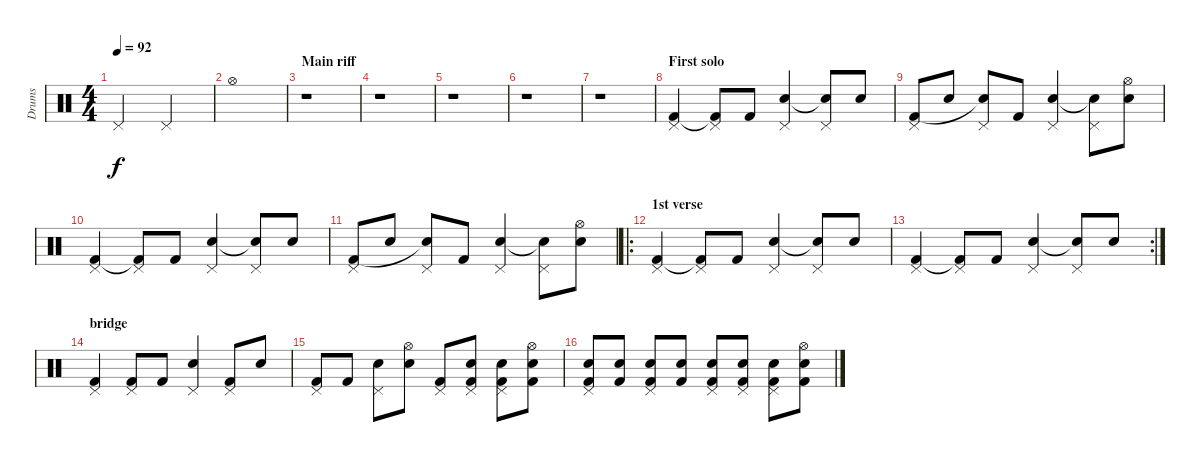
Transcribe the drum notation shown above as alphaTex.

\track ("Drums" "Drums") {instrument percussion}
\staff {score}
\articulation defaults
\ts (4 4)
\tempo 92
\clef neutral
\ks c "Pedal Hi-Hat (hit)".2{dy f} "Pedal Hi-Hat (hit)".2
|
"Hi-Hat (open)".1 |
\section ("" "Main riff")
r.1 |
r.1 |
r.1 |
r.1 |
r.1 |
\section ("" "First solo")
("Pedal Hi-Hat (hit)" "Kick (hit) 2").4 ("Pedal Hi-Hat (hit)" "Kick (hit) 2"{t}).8 "Kick (hit) 2".8 ("Pedal Hi-Hat (hit)" "Snare (hit) 2").4 ("Pedal Hi-Hat (hit)" "Snare (hit)"{t}).8 "Snare (hit) 2".8 |
("Pedal Hi-Hat (hit)" "Kick (hit) 2").8 "Snare (hit) 2".8 ("Pedal Hi-Hat (hit)" "Snare (hit)"{t}).8 "Kick (hit) 2".8 ("Pedal Hi-Hat (hit)" "Snare (hit) 2").4 ("Pedal Hi-Hat (hit)" "Snare (hit)"{t}).8 ("Hi-Hat (open)" "Snare (hit) 2").8 |
("Pedal Hi-Hat (hit)" "Kick (hit) 2").4 ("Pedal Hi-Hat (hit)" "Kick (hit) 2"{t}).8 "Kick (hit) 2".8 ("Pedal Hi-Hat (hit)" "Snare (hit) 2").4 ("Pedal Hi-Hat (hit)" "Snare (hit)"{t}).8 "Snare (hit) 2".8 |
("Pedal Hi-Hat (hit)" "Kick (hit) 2").8 "Snare (hit) 2".8 ("Pedal Hi-Hat (hit)" "Snare (hit)"{t}).8 "Kick (hit) 2".8 ("Pedal Hi-Hat (hit)" "Snare (hit) 2").4 ("Pedal Hi-Hat (hit)" "Snare (hit)"{t}).8 ("Hi-Hat (open)" "Snare (hit) 2").8 |
\ro
\section ("" "1st verse")
("Pedal Hi-Hat (hit)" "Kick (hit) 2").4 ("Pedal Hi-Hat (hit)" "Kick (hit) 2"{t}).8 "Kick (hit) 2".8 ("Pedal Hi-Hat (hit)" "Snare (hit) 2").4 ("Pedal Hi-Hat (hit)" "Snare (hit)"{t}).8 "Snare (hit) 2".8 |
\rc 2
("Pedal Hi-Hat (hit)" "Kick (hit) 2").4 ("Pedal Hi-Hat (hit)" "Kick (hit) 2"{t}).8 "Kick (hit) 2".8 ("Pedal Hi-Hat (hit)" "Snare (hit) 2").4 ("Pedal Hi-Hat (hit)" "Snare (hit)"{t}).8 "Snare (hit) 2".8 |
\section ("" "bridge")
("Pedal Hi-Hat (hit)" "Kick (hit) 2").4 ("Pedal Hi-Hat (hit)" "Kick (hit) 2").8 "Kick (hit) 2".8 ("Pedal Hi-Hat (hit)" "Snare (hit) 2").4 ("Pedal Hi-Hat (hit)" "Kick (hit) 2").8 "Snare (hit) 2".8 |
("Pedal Hi-Hat (hit)" "Kick (hit) 2").8 "Kick (hit) 2".8 ("Pedal Hi-Hat (hit)" "Snare (hit) 2").8 ("Hi-Hat (open)" "Snare (hit) 2").8 ("Pedal Hi-Hat (hit)" "Kick (hit) 2").8 ("Pedal Hi-Hat (hit)" "Snare (hit) 2" "Kick (hit) 2").8 ("Pedal Hi-Hat (hit)" "Snare (hit) 2" "Kick (hit) 2").8 ("Hi-Hat (open)" "Snare (hit) 2" "Kick (hit) 2").8 |
("Pedal Hi-Hat (hit)" "Snare (hit) 2" "Kick (hit) 2").8 ("Snare (hit) 2" "Kick (hit) 2").8 ("Pedal Hi-Hat (hit)" "Snare (hit) 2" "Kick (hit) 2").8 ("Snare (hit) 2" "Kick (hit) 2").8 ("Pedal Hi-Hat (hit)" "Snare (hit) 2" "Kick (hit) 2").8 ("Pedal Hi-Hat (hit)" "Snare (hit) 2" "Kick (hit) 2").8 ("Pedal Hi-Hat (hit)" "Snare (hit) 2" "Kick (hit) 2").8 ("Hi-Hat (open)" "Snare (hit) 2" "Kick (hit) 2").8
